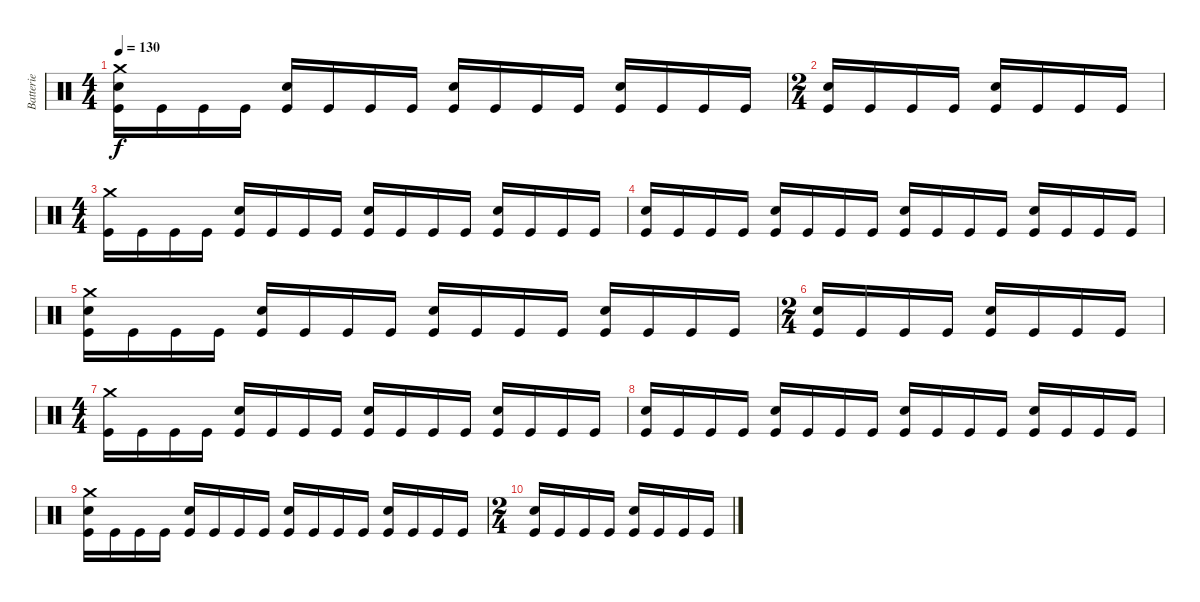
\track ("Batterie" "Batterie") {instrument percussion}
\staff {score}
\articulation defaults
\ts (4 4)
\tempo 130
\clef neutral
\ks c
("Crash medium (hit)" "Electric Snare (hit)" "Kick (hit)").16{dy f} "Kick (hit)".16 "Kick (hit)".16 "Kick (hit)".16 ("Electric Snare (hit)" "Kick (hit)").16 "Kick (hit)".16 "Kick (hit)".16 "Kick (hit)".16 ("Electric Snare (hit)" "Kick (hit)").16 "Kick (hit)".16 "Kick (hit)".16 "Kick (hit)".16 ("Electric Snare (hit)" "Kick (hit)").16 "Kick (hit)".16 "Kick (hit)".16 "Kick (hit)".16 |
\ts (2 4)
("Electric Snare (hit)" "Kick (hit)").16 "Kick (hit)".16 "Kick (hit)".16 "Kick (hit)".16 ("Electric Snare (hit)" "Kick (hit)").16 "Kick (hit)".16 "Kick (hit)".16 "Kick (hit)".16 |
\ts (4 4)
("Crash medium (hit)" "Kick (hit)").16 "Kick (hit)".16 "Kick (hit)".16 "Kick (hit)".16 ("Electric Snare (hit)" "Kick (hit)").16 "Kick (hit)".16 "Kick (hit)".16 "Kick (hit)".16 ("Electric Snare (hit)" "Kick (hit)").16 "Kick (hit)".16 "Kick (hit)".16 "Kick (hit)".16 ("Electric Snare (hit)" "Kick (hit)").16 "Kick (hit)".16 "Kick (hit)".16 "Kick (hit)".16 |
("Electric Snare (hit)" "Kick (hit)").16 "Kick (hit)".16 "Kick (hit)".16 "Kick (hit)".16 ("Electric Snare (hit)" "Kick (hit)").16 "Kick (hit)".16 "Kick (hit)".16 "Kick (hit)".16 ("Electric Snare (hit)" "Kick (hit)").16 "Kick (hit)".16 "Kick (hit)".16 "Kick (hit)".16 ("Electric Snare (hit)" "Kick (hit)").16 "Kick (hit)".16 "Kick (hit)".16 "Kick (hit)".16 |
("Crash medium (hit)" "Electric Snare (hit)" "Kick (hit)").16 "Kick (hit)".16 "Kick (hit)".16 "Kick (hit)".16 ("Electric Snare (hit)" "Kick (hit)").16 "Kick (hit)".16 "Kick (hit)".16 "Kick (hit)".16 ("Electric Snare (hit)" "Kick (hit)").16 "Kick (hit)".16 "Kick (hit)".16 "Kick (hit)".16 ("Electric Snare (hit)" "Kick (hit)").16 "Kick (hit)".16 "Kick (hit)".16 "Kick (hit)".16 |
\ts (2 4)
("Electric Snare (hit)" "Kick (hit)").16 "Kick (hit)".16 "Kick (hit)".16 "Kick (hit)".16 ("Electric Snare (hit)" "Kick (hit)").16 "Kick (hit)".16 "Kick (hit)".16 "Kick (hit)".16 |
\ts (4 4)
("Crash medium (hit)" "Kick (hit)").16 "Kick (hit)".16 "Kick (hit)".16 "Kick (hit)".16 ("Electric Snare (hit)" "Kick (hit)").16 "Kick (hit)".16 "Kick (hit)".16 "Kick (hit)".16 ("Electric Snare (hit)" "Kick (hit)").16 "Kick (hit)".16 "Kick (hit)".16 "Kick (hit)".16 ("Electric Snare (hit)" "Kick (hit)").16 "Kick (hit)".16 "Kick (hit)".16 "Kick (hit)".16 |
("Electric Snare (hit)" "Kick (hit)").16 "Kick (hit)".16 "Kick (hit)".16 "Kick (hit)".16 ("Electric Snare (hit)" "Kick (hit)").16 "Kick (hit)".16 "Kick (hit)".16 "Kick (hit)".16 ("Electric Snare (hit)" "Kick (hit)").16 "Kick (hit)".16 "Kick (hit)".16 "Kick (hit)".16 ("Electric Snare (hit)" "Kick (hit)").16 "Kick (hit)".16 "Kick (hit)".16 "Kick (hit)".16 |
("Crash medium (hit)" "Electric Snare (hit)" "Kick (hit)").16 "Kick (hit)".16 "Kick (hit)".16 "Kick (hit)".16 ("Electric Snare (hit)" "Kick (hit)").16 "Kick (hit)".16 "Kick (hit)".16 "Kick (hit)".16 ("Electric Snare (hit)" "Kick (hit)").16 "Kick (hit)".16 "Kick (hit)".16 "Kick (hit)".16 ("Electric Snare (hit)" "Kick (hit)").16 "Kick (hit)".16 "Kick (hit)".16 "Kick (hit)".16 |
\ts (2 4)
("Electric Snare (hit)" "Kick (hit)").16 "Kick (hit)".16 "Kick (hit)".16 "Kick (hit)".16 ("Electric Snare (hit)" "Kick (hit)").16 "Kick (hit)".16 "Kick (hit)".16 "Kick (hit)".16
